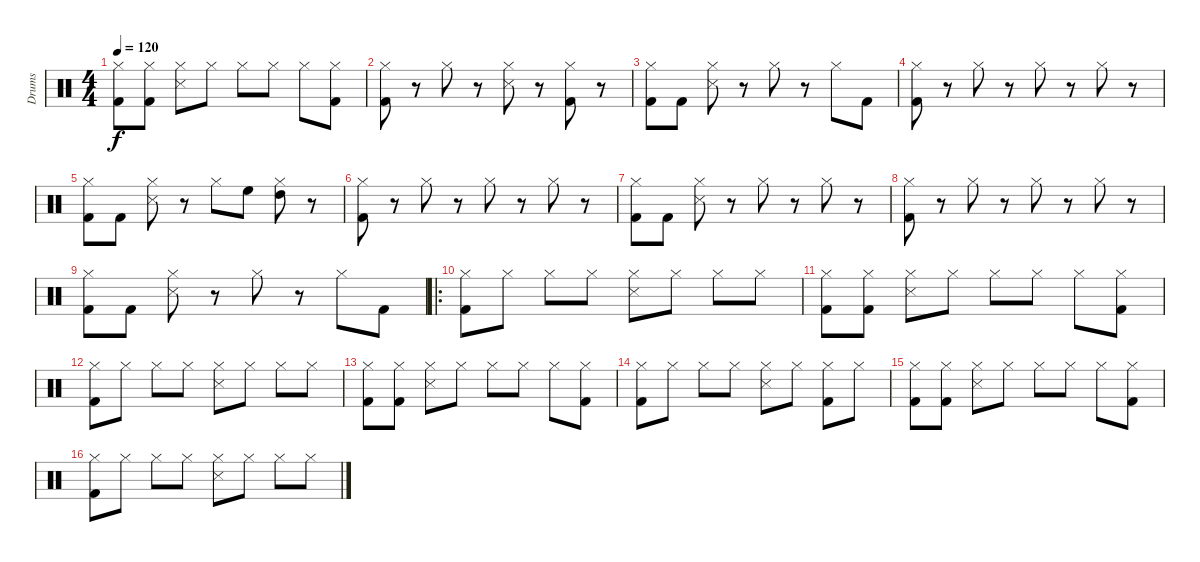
\track ("Drums" "Drums") {instrument percussion}
\staff {score}
\articulation defaults
\ts (4 4)
\tempo 120
\clef neutral
\ks c
("Hi-Hat (closed)" "Kick (hit) 2").8{dy f} ("Hi-Hat (closed)" "Kick (hit) 2").8 ("Hi-Hat (closed)" "Snare (side stick) 3").8 "Hi-Hat (closed)".8 "Hi-Hat (closed)".8 "Hi-Hat (closed)".8 "Hi-Hat (closed)".8 ("Hi-Hat (closed)" "Kick (hit) 2").8 |
("Hi-Hat (closed)" "Kick (hit) 2").8 r.8 "Hi-Hat (closed)".8 r.8 ("Hi-Hat (closed)" "Snare (side stick) 3").8 r.8 ("Hi-Hat (closed)" "Kick (hit) 2").8 r.8 |
("Hi-Hat (closed)" "Kick (hit) 2").8 "Kick (hit) 2".8 ("Hi-Hat (closed)" "Snare (side stick) 3").8 r.8 "Hi-Hat (closed)".8 r.8 "Hi-Hat (closed)".8 "Kick (hit) 2".8 |
("Hi-Hat (closed)" "Kick (hit) 2").8 r.8 "Hi-Hat (closed)".8 r.8 "Hi-Hat (closed)".8 r.8 "Hi-Hat (closed)".8 r.8 |
("Hi-Hat (closed)" "Kick (hit) 2").8 "Kick (hit) 2".8 ("Hi-Hat (closed)" "Snare (side stick) 3").8 r.8 "Hi-Hat (closed)".8 "High Floor Tom (hit)".8 ("Hi-Hat (closed)" "High Tom (hit)").8 r.8 |
("Hi-Hat (closed)" "Kick (hit) 2").8 r.8 "Hi-Hat (closed)".8 r.8 "Hi-Hat (closed)".8 r.8 "Hi-Hat (closed)".8 r.8 |
("Hi-Hat (closed)" "Kick (hit) 2").8 "Kick (hit) 2".8 ("Hi-Hat (closed)" "Snare (side stick) 3").8 r.8 "Hi-Hat (closed)".8 r.8 "Hi-Hat (closed)".8 r.8 |
("Hi-Hat (closed)" "Kick (hit) 2").8 r.8 "Hi-Hat (closed)".8 r.8 "Hi-Hat (closed)".8 r.8 "Hi-Hat (closed)".8 r.8 |
("Hi-Hat (closed)" "Kick (hit) 2").8 "Kick (hit) 2".8 ("Hi-Hat (closed)" "Snare (side stick) 3").8 r.8 "Hi-Hat (closed)".8 r.8 "Hi-Hat (closed)".8 "Kick (hit) 2".8 |
\ro
("Hi-Hat (closed)" "Kick (hit) 2").8 "Hi-Hat (closed)".8 "Hi-Hat (closed)".8 "Hi-Hat (closed)".8 ("Hi-Hat (closed)" "Snare (side stick) 3").8 "Hi-Hat (closed)".8 "Hi-Hat (closed)".8 "Hi-Hat (closed)".8 |
("Hi-Hat (closed)" "Kick (hit) 2").8 ("Hi-Hat (closed)" "Kick (hit) 2").8 ("Hi-Hat (closed)" "Snare (side stick) 3").8 "Hi-Hat (closed)".8 "Hi-Hat (closed)".8 "Hi-Hat (closed)".8 "Hi-Hat (closed)".8 ("Hi-Hat (closed)" "Kick (hit) 2").8 |
("Hi-Hat (closed)" "Kick (hit) 2").8 "Hi-Hat (closed)".8 "Hi-Hat (closed)".8 "Hi-Hat (closed)".8 ("Hi-Hat (closed)" "Snare (side stick) 3").8 "Hi-Hat (closed)".8 "Hi-Hat (closed)".8 "Hi-Hat (closed)".8 |
("Hi-Hat (closed)" "Kick (hit) 2").8 ("Hi-Hat (closed)" "Kick (hit) 2").8 ("Hi-Hat (closed)" "Snare (side stick) 3").8 "Hi-Hat (closed)".8 "Hi-Hat (closed)".8 "Hi-Hat (closed)".8 "Hi-Hat (closed)".8 ("Hi-Hat (closed)" "Kick (hit) 2").8 |
("Hi-Hat (closed)" "Kick (hit) 2").8 "Hi-Hat (closed)".8 "Hi-Hat (closed)".8 "Hi-Hat (closed)".8 ("Hi-Hat (closed)" "Snare (side stick) 3").8 "Hi-Hat (closed)".8 ("Hi-Hat (closed)" "Kick (hit) 2").8 "Hi-Hat (closed)".8 |
("Hi-Hat (closed)" "Kick (hit) 2").8 ("Hi-Hat (closed)" "Kick (hit) 2").8 ("Hi-Hat (closed)" "Snare (side stick) 3").8 "Hi-Hat (closed)".8 "Hi-Hat (closed)".8 "Hi-Hat (closed)".8 "Hi-Hat (closed)".8 ("Hi-Hat (closed)" "Kick (hit) 2").8 |
("Hi-Hat (closed)" "Kick (hit) 2").8 "Hi-Hat (closed)".8 "Hi-Hat (closed)".8 "Hi-Hat (closed)".8 ("Hi-Hat (closed)" "Snare (side stick) 3").8 "Hi-Hat (closed)".8 "Hi-Hat (closed)".8 "Hi-Hat (closed)".8
